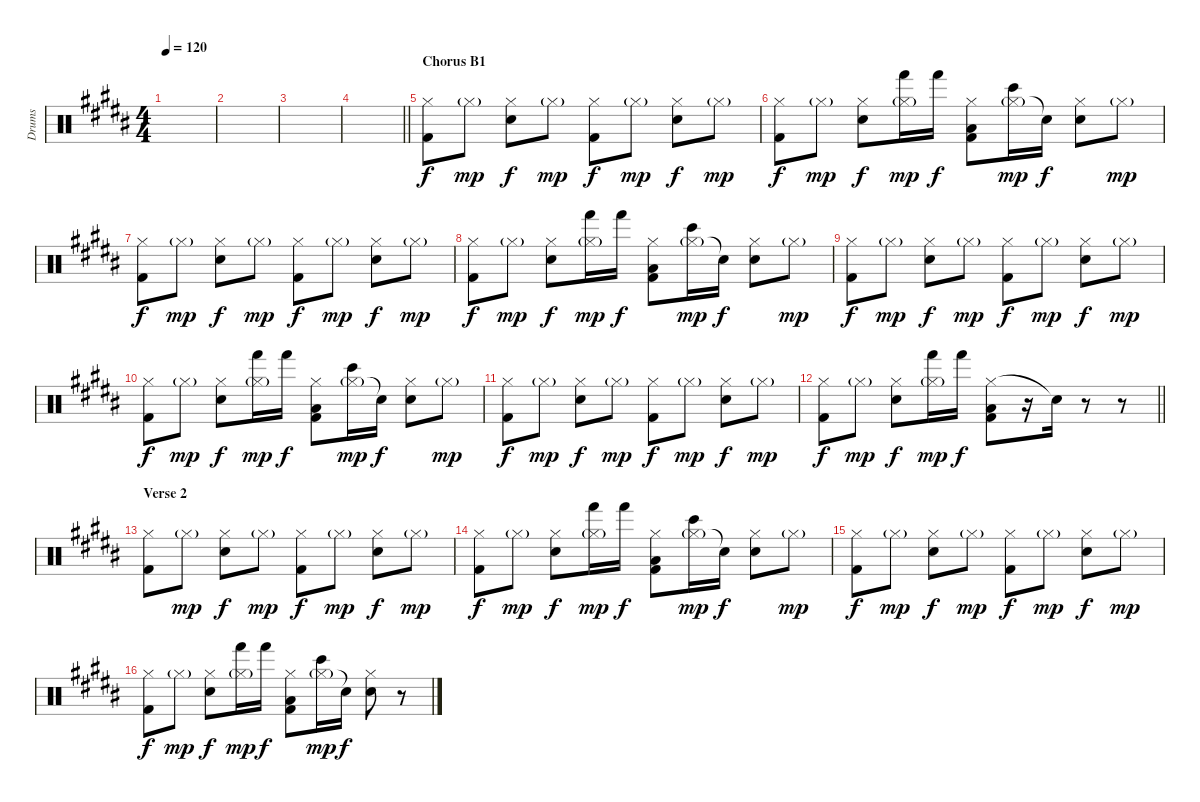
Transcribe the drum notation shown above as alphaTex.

\track ("Drums" "Drums") {instrument percussion}
\staff {score}
\articulation defaults
\ts (4 4)
\tempo 120
\clef neutral
\ks g#minor
|
|
|
\barLineRight lightlight
|
\section ("" "Chorus B1")
("Hi-Hat (closed)" "Kick (hit) 2").8{dy f} "Hi-Hat (closed)"{g}.8{dy mp} ("Hi-Hat (closed)" "Electric Snare (hit)").8{dy f} "Hi-Hat (closed)"{g}.8{dy mp} ("Hi-Hat (closed)" "Kick (hit) 2").8{dy f} "Hi-Hat (closed)"{g}.8{dy mp} ("Hi-Hat (closed)" "Electric Snare (hit)").8{dy f} "Hi-Hat (closed)"{g}.8{dy mp} |
("Hi-Hat (closed)" "Kick (hit) 2").8{dy f} "Hi-Hat (closed)"{g}.8{dy mp} ("Hi-Hat (closed)" "Electric Snare (hit)").8{dy f} ("Hi-Hat (closed)"{g} "Hand (hit)").16{dy mp} "Hand (hit)".16{dy f} ("Hi-Hat (closed)" "Low Tom (hit)" "Kick (hit) 2").8 ("Hi-Hat (closed)"{g} "Bongo High (hit)").16{dy mp} "Snare (hit)"{t}.16{dy f} ("Hi-Hat (closed)" "Electric Snare (hit)").8 "Hi-Hat (closed)"{g}.8{dy mp} |
("Hi-Hat (closed)" "Kick (hit) 2").8{dy f} "Hi-Hat (closed)"{g}.8{dy mp} ("Hi-Hat (closed)" "Electric Snare (hit)").8{dy f} "Hi-Hat (closed)"{g}.8{dy mp} ("Hi-Hat (closed)" "Kick (hit) 2").8{dy f} "Hi-Hat (closed)"{g}.8{dy mp} ("Hi-Hat (closed)" "Electric Snare (hit)").8{dy f} "Hi-Hat (closed)"{g}.8{dy mp} |
("Hi-Hat (closed)" "Kick (hit) 2").8{dy f} "Hi-Hat (closed)"{g}.8{dy mp} ("Hi-Hat (closed)" "Electric Snare (hit)").8{dy f} ("Hi-Hat (closed)"{g} "Hand (hit)").16{dy mp} "Hand (hit)".16{dy f} ("Hi-Hat (closed)" "Low Tom (hit)" "Kick (hit) 2").8 ("Hi-Hat (closed)"{g} "Bongo High (hit)").16{dy mp} "Snare (hit)"{t}.16{dy f} ("Hi-Hat (closed)" "Electric Snare (hit)").8 "Hi-Hat (closed)"{g}.8{dy mp} |
("Hi-Hat (closed)" "Kick (hit) 2").8{dy f} "Hi-Hat (closed)"{g}.8{dy mp} ("Hi-Hat (closed)" "Electric Snare (hit)").8{dy f} "Hi-Hat (closed)"{g}.8{dy mp} ("Hi-Hat (closed)" "Kick (hit) 2").8{dy f} "Hi-Hat (closed)"{g}.8{dy mp} ("Hi-Hat (closed)" "Electric Snare (hit)").8{dy f} "Hi-Hat (closed)"{g}.8{dy mp} |
("Hi-Hat (closed)" "Kick (hit) 2").8{dy f} "Hi-Hat (closed)"{g}.8{dy mp} ("Hi-Hat (closed)" "Electric Snare (hit)").8{dy f} ("Hi-Hat (closed)"{g} "Hand (hit)").16{dy mp} "Hand (hit)".16{dy f} ("Hi-Hat (closed)" "Low Tom (hit)" "Kick (hit) 2").8 ("Hi-Hat (closed)"{g} "Bongo High (hit)").16{dy mp} "Snare (hit)"{t}.16{dy f} ("Hi-Hat (closed)" "Electric Snare (hit)").8 "Hi-Hat (closed)"{g}.8{dy mp} |
("Hi-Hat (closed)" "Kick (hit) 2").8{dy f} "Hi-Hat (closed)"{g}.8{dy mp} ("Hi-Hat (closed)" "Electric Snare (hit)").8{dy f} "Hi-Hat (closed)"{g}.8{dy mp} ("Hi-Hat (closed)" "Kick (hit) 2").8{dy f} "Hi-Hat (closed)"{g}.8{dy mp} ("Hi-Hat (closed)" "Electric Snare (hit)").8{dy f} "Hi-Hat (closed)"{g}.8{dy mp} |
\barLineRight lightlight
("Hi-Hat (closed)" "Kick (hit) 2").8{dy f} "Hi-Hat (closed)"{g}.8{dy mp} ("Hi-Hat (closed)" "Electric Snare (hit)").8{dy f} ("Hi-Hat (closed)"{g} "Hand (hit)").16{dy mp} "Hand (hit)".16{dy f} ("Hi-Hat (closed)" "Low Tom (hit)" "Kick (hit) 2").8 r.16 "Snare (hit)"{t}.16 r.8 r.8 |
\section ("" "Verse 2")
("Hi-Hat (closed)" "Kick (hit) 2").8 "Hi-Hat (closed)"{g}.8{dy mp} ("Hi-Hat (closed)" "Electric Snare (hit)").8{dy f} "Hi-Hat (closed)"{g}.8{dy mp} ("Hi-Hat (closed)" "Kick (hit) 2").8{dy f} "Hi-Hat (closed)"{g}.8{dy mp} ("Hi-Hat (closed)" "Electric Snare (hit)").8{dy f} "Hi-Hat (closed)"{g}.8{dy mp} |
("Hi-Hat (closed)" "Kick (hit) 2").8{dy f} "Hi-Hat (closed)"{g}.8{dy mp} ("Hi-Hat (closed)" "Electric Snare (hit)").8{dy f} ("Hi-Hat (closed)"{g} "Hand (hit)").16{dy mp} "Hand (hit)".16{dy f} ("Hi-Hat (closed)" "Low Tom (hit)" "Kick (hit) 2").8 ("Hi-Hat (closed)"{g} "Bongo High (hit)").16{dy mp} "Snare (hit)"{t}.16{dy f} ("Hi-Hat (closed)" "Electric Snare (hit)").8 "Hi-Hat (closed)"{g}.8{dy mp} |
("Hi-Hat (closed)" "Kick (hit) 2").8{dy f} "Hi-Hat (closed)"{g}.8{dy mp} ("Hi-Hat (closed)" "Electric Snare (hit)").8{dy f} "Hi-Hat (closed)"{g}.8{dy mp} ("Hi-Hat (closed)" "Kick (hit) 2").8{dy f} "Hi-Hat (closed)"{g}.8{dy mp} ("Hi-Hat (closed)" "Electric Snare (hit)").8{dy f} "Hi-Hat (closed)"{g}.8{dy mp} |
("Hi-Hat (closed)" "Kick (hit) 2").8{dy f} "Hi-Hat (closed)"{g}.8{dy mp} ("Hi-Hat (closed)" "Electric Snare (hit)").8{dy f} ("Hi-Hat (closed)"{g} "Hand (hit)").16{dy mp} "Hand (hit)".16{dy f} ("Hi-Hat (closed)" "Low Tom (hit)" "Kick (hit) 2").8 ("Hi-Hat (closed)"{g} "Bongo High (hit)").16{dy mp} "Snare (hit)"{t}.16{dy f} ("Hi-Hat (closed)" "Electric Snare (hit)").8 r.8
